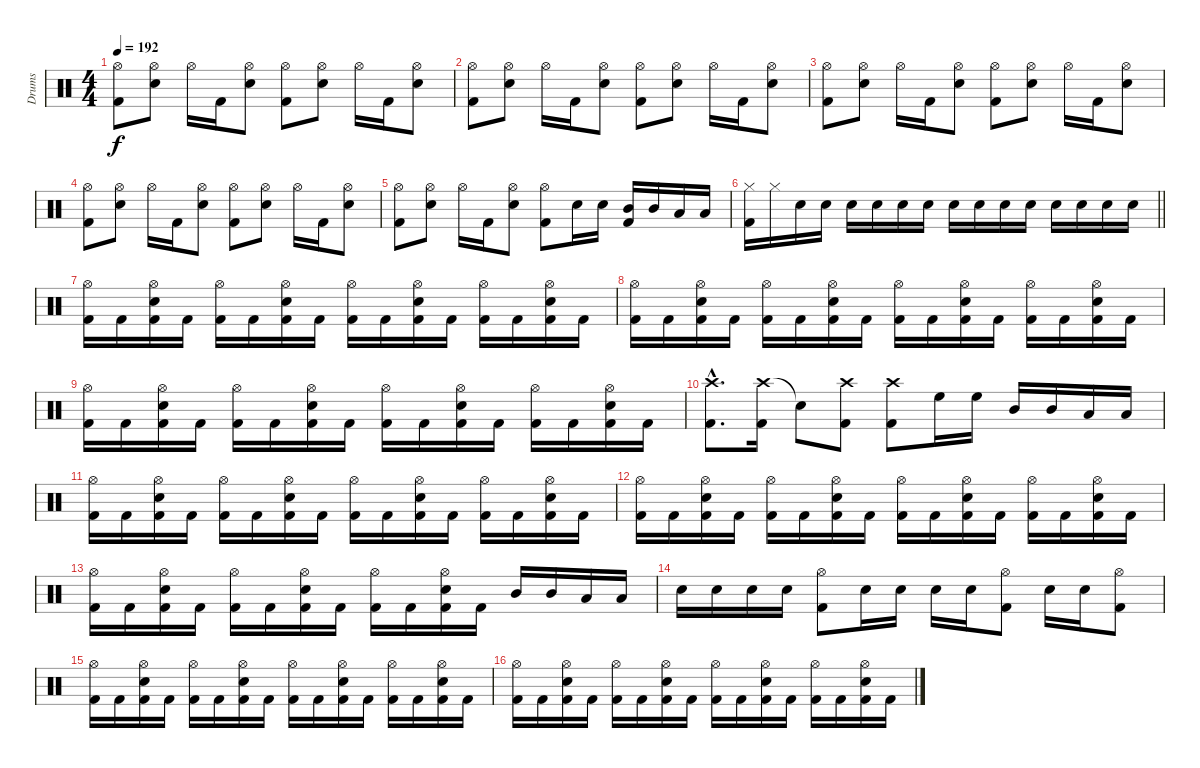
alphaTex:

\track ("Drums" "Drums") {instrument percussion}
\staff {score}
\articulation defaults
\ts (4 4)
\tempo 192
\clef neutral
\ks c
("Hi-Hat (open)" "Kick (hit) 2").8{dy f} ("Hi-Hat (open)" "Snare (hit) 2").8 "Hi-Hat (open)".16 "Kick (hit) 2".16 ("Hi-Hat (open)" "Snare (hit) 2").8 ("Hi-Hat (open)" "Kick (hit) 2").8 ("Hi-Hat (open)" "Snare (hit) 2").8 "Hi-Hat (open)".16 "Kick (hit) 2".16 ("Hi-Hat (open)" "Snare (hit) 2").8 |
("Hi-Hat (open)" "Kick (hit) 2").8 ("Hi-Hat (open)" "Snare (hit) 2").8 "Hi-Hat (open)".16 "Kick (hit) 2".16 ("Hi-Hat (open)" "Snare (hit) 2").8 ("Hi-Hat (open)" "Kick (hit) 2").8 ("Hi-Hat (open)" "Snare (hit) 2").8 "Hi-Hat (open)".16 "Kick (hit) 2".16 ("Hi-Hat (open)" "Snare (hit) 2").8 |
("Hi-Hat (open)" "Kick (hit) 2").8 ("Hi-Hat (open)" "Snare (hit) 2").8 "Hi-Hat (open)".16 "Kick (hit) 2".16 ("Hi-Hat (open)" "Snare (hit) 2").8 ("Hi-Hat (open)" "Kick (hit) 2").8 ("Hi-Hat (open)" "Snare (hit) 2").8 "Hi-Hat (open)".16 "Kick (hit) 2".16 ("Hi-Hat (open)" "Snare (hit) 2").8 |
("Hi-Hat (open)" "Kick (hit) 2").8 ("Hi-Hat (open)" "Snare (hit) 2").8 "Hi-Hat (open)".16 "Kick (hit) 2".16 ("Hi-Hat (open)" "Snare (hit) 2").8 ("Hi-Hat (open)" "Kick (hit) 2").8 ("Hi-Hat (open)" "Snare (hit) 2").8 "Hi-Hat (open)".16 "Kick (hit) 2".16 ("Hi-Hat (open)" "Snare (hit) 2").8 |
("Hi-Hat (open)" "Kick (hit) 2").8 ("Hi-Hat (open)" "Snare (hit) 2").8 "Hi-Hat (open)".16 "Kick (hit) 2".16 ("Hi-Hat (open)" "Snare (hit) 2").8 ("Hi-Hat (open)" "Kick (hit) 2").8 "Snare (hit) 2".16 "Snare (hit) 2".16 ("Mid Tom (hit)" "Kick (hit) 2").16 "Mid Tom (hit)".16 "Low Floor Tom (hit)".16 "Low Floor Tom (hit)".16 |
\barLineRight lightlight
("Hi-Hat (closed)" "Kick (hit) 2").16 "Hi-Hat (closed)".16 "Snare (hit) 2".16 "Snare (hit) 2".16 "Snare (hit) 2".16 "Snare (hit) 2".16 "Snare (hit) 2".16 "Snare (hit) 2".16 "Snare (hit) 2".16 "Snare (hit) 2".16 "Snare (hit) 2".16 "Snare (hit) 2".16 "Snare (hit) 2".16 "Snare (hit) 2".16 "Snare (hit) 2".16 "Snare (hit) 2".16 |
("Hi-Hat (open)" "Kick (hit) 2").16 "Kick (hit) 2".16 ("Hi-Hat (open)" "Snare (hit) 2" "Kick (hit) 2").16 "Kick (hit) 2".16 ("Hi-Hat (open)" "Kick (hit) 2").16 "Kick (hit) 2".16 ("Hi-Hat (open)" "Snare (hit) 2" "Kick (hit) 2").16 "Kick (hit) 2".16 ("Hi-Hat (open)" "Kick (hit) 2").16 "Kick (hit) 2".16 ("Hi-Hat (open)" "Snare (hit) 2" "Kick (hit) 2").16 "Kick (hit) 2".16 ("Hi-Hat (open)" "Kick (hit) 2").16 "Kick (hit) 2".16 ("Hi-Hat (open)" "Snare (hit) 2" "Kick (hit) 2").16 "Kick (hit) 2".16 |
("Hi-Hat (open)" "Kick (hit) 2").16 "Kick (hit) 2".16 ("Hi-Hat (open)" "Snare (hit) 2" "Kick (hit) 2").16 "Kick (hit) 2".16 ("Hi-Hat (open)" "Kick (hit) 2").16 "Kick (hit) 2".16 ("Hi-Hat (open)" "Snare (hit) 2" "Kick (hit) 2").16 "Kick (hit) 2".16 ("Hi-Hat (open)" "Kick (hit) 2").16 "Kick (hit) 2".16 ("Hi-Hat (open)" "Snare (hit) 2" "Kick (hit) 2").16 "Kick (hit) 2".16 ("Hi-Hat (open)" "Kick (hit) 2").16 "Kick (hit) 2".16 ("Hi-Hat (open)" "Snare (hit) 2" "Kick (hit) 2").16 "Kick (hit) 2".16 |
("Hi-Hat (open)" "Kick (hit) 2").16 "Kick (hit) 2".16 ("Hi-Hat (open)" "Snare (hit) 2" "Kick (hit) 2").16 "Kick (hit) 2".16 ("Hi-Hat (open)" "Kick (hit) 2").16 "Kick (hit) 2".16 ("Hi-Hat (open)" "Snare (hit) 2" "Kick (hit) 2").16 "Kick (hit) 2".16 ("Hi-Hat (open)" "Kick (hit) 2").16 "Kick (hit) 2".16 ("Hi-Hat (open)" "Snare (hit) 2" "Kick (hit) 2").16 "Kick (hit) 2".16 ("Hi-Hat (open)" "Kick (hit) 2").16 "Kick (hit) 2".16 ("Hi-Hat (open)" "Snare (hit) 2" "Kick (hit) 2").16 "Kick (hit) 2".16 |
("Crash high (hit)"{hac} "Kick (hit) 2"{hac}).8{d} ("Crash high (hit)" "Kick (hit) 2").16 "Snare (hit)"{t}.8 ("Crash high (hit)" "Kick (hit) 2").8 ("Crash high (hit)" "Kick (hit) 2").8 "High Floor Tom (hit)".16 "High Floor Tom (hit)".16 "Mid Tom (hit)".16 "Mid Tom (hit)".16 "Low Floor Tom (hit)".16 "Low Floor Tom (hit)".16 |
("Hi-Hat (open)" "Kick (hit) 2").16 "Kick (hit) 2".16 ("Hi-Hat (open)" "Snare (hit) 2" "Kick (hit) 2").16 "Kick (hit) 2".16 ("Hi-Hat (open)" "Kick (hit) 2").16 "Kick (hit) 2".16 ("Hi-Hat (open)" "Snare (hit) 2" "Kick (hit) 2").16 "Kick (hit) 2".16 ("Hi-Hat (open)" "Kick (hit) 2").16 "Kick (hit) 2".16 ("Hi-Hat (open)" "Snare (hit) 2" "Kick (hit) 2").16 "Kick (hit) 2".16 ("Hi-Hat (open)" "Kick (hit) 2").16 "Kick (hit) 2".16 ("Hi-Hat (open)" "Snare (hit) 2" "Kick (hit) 2").16 "Kick (hit) 2".16 |
("Hi-Hat (open)" "Kick (hit) 2").16 "Kick (hit) 2".16 ("Hi-Hat (open)" "Snare (hit) 2" "Kick (hit) 2").16 "Kick (hit) 2".16 ("Hi-Hat (open)" "Kick (hit) 2").16 "Kick (hit) 2".16 ("Hi-Hat (open)" "Snare (hit) 2" "Kick (hit) 2").16 "Kick (hit) 2".16 ("Hi-Hat (open)" "Kick (hit) 2").16 "Kick (hit) 2".16 ("Hi-Hat (open)" "Snare (hit) 2" "Kick (hit) 2").16 "Kick (hit) 2".16 ("Hi-Hat (open)" "Kick (hit) 2").16 "Kick (hit) 2".16 ("Hi-Hat (open)" "Snare (hit) 2" "Kick (hit) 2").16 "Kick (hit) 2".16 |
("Hi-Hat (open)" "Kick (hit) 2").16 "Kick (hit) 2".16 ("Hi-Hat (open)" "Snare (hit) 2" "Kick (hit) 2").16 "Kick (hit) 2".16 ("Hi-Hat (open)" "Kick (hit) 2").16 "Kick (hit) 2".16 ("Hi-Hat (open)" "Snare (hit) 2" "Kick (hit) 2").16 "Kick (hit) 2".16 ("Hi-Hat (open)" "Kick (hit) 2").16 "Kick (hit) 2".16 ("Hi-Hat (open)" "Snare (hit) 2" "Kick (hit) 2").16 "Kick (hit) 2".16 "Mid Tom (hit)".16 "Mid Tom (hit)".16 "Low Floor Tom (hit)".16 "Low Floor Tom (hit)".16 |
"Snare (hit) 2".16 "Snare (hit) 2".16 "Snare (hit) 2".16 "Snare (hit) 2".16 ("Hi-Hat (open)" "Kick (hit) 2").8 "Snare (hit) 2".16 "Snare (hit) 2".16 "Snare (hit) 2".16 "Snare (hit) 2".16 ("Hi-Hat (open)" "Kick (hit) 2").8 "Snare (hit) 2".16 "Snare (hit) 2".16 ("Hi-Hat (open)" "Kick (hit) 2").8 |
("Hi-Hat (open)" "Kick (hit) 2").16 "Kick (hit) 2".16 ("Hi-Hat (open)" "Snare (hit) 2" "Kick (hit) 2").16 "Kick (hit) 2".16 ("Hi-Hat (open)" "Kick (hit) 2").16 "Kick (hit) 2".16 ("Hi-Hat (open)" "Snare (hit) 2" "Kick (hit) 2").16 "Kick (hit) 2".16 ("Hi-Hat (open)" "Kick (hit) 2").16 "Kick (hit) 2".16 ("Hi-Hat (open)" "Snare (hit) 2" "Kick (hit) 2").16 "Kick (hit) 2".16 ("Hi-Hat (open)" "Kick (hit) 2").16 "Kick (hit) 2".16 ("Hi-Hat (open)" "Snare (hit) 2" "Kick (hit) 2").16 "Kick (hit) 2".16 |
("Hi-Hat (open)" "Kick (hit) 2").16 "Kick (hit) 2".16 ("Hi-Hat (open)" "Snare (hit) 2" "Kick (hit) 2").16 "Kick (hit) 2".16 ("Hi-Hat (open)" "Kick (hit) 2").16 "Kick (hit) 2".16 ("Hi-Hat (open)" "Snare (hit) 2" "Kick (hit) 2").16 "Kick (hit) 2".16 ("Hi-Hat (open)" "Kick (hit) 2").16 "Kick (hit) 2".16 ("Hi-Hat (open)" "Snare (hit) 2" "Kick (hit) 2").16 "Kick (hit) 2".16 ("Hi-Hat (open)" "Kick (hit) 2").16 "Kick (hit) 2".16 ("Hi-Hat (open)" "Snare (hit) 2" "Kick (hit) 2").16 "Kick (hit) 2".16
